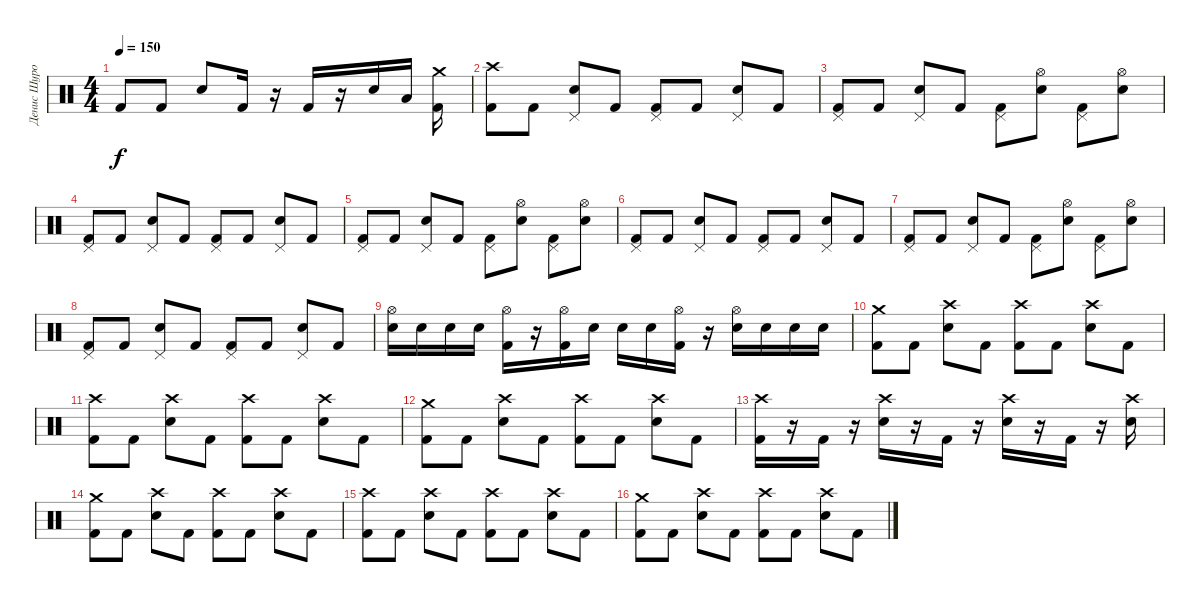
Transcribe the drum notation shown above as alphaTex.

\track ("Денис Шуров" "Денис Шуро") {instrument percussion}
\staff {score}
\articulation defaults
\ts (4 4)
\tempo 150
\clef neutral
\ks c "Kick (hit) 2".8{dy f} "Kick (hit) 2".8 "Electric Snare (hit)".8 "Kick (hit) 2".16
r.16 "Kick (hit) 2".16 r.16 "Electric Snare (hit)".16 "Low Tom (hit)".16 ("Crash medium (hit)" "Kick (hit) 2").16 |
("Crash high (hit)" "Kick (hit) 2").8 "Kick (hit) 2".8 ("Pedal Hi-Hat (hit)" "Electric Snare (hit)").8 "Kick (hit) 2".8 ("Pedal Hi-Hat (hit)" "Kick (hit) 2").8 "Kick (hit) 2".8 ("Pedal Hi-Hat (hit)" "Electric Snare (hit)").8 "Kick (hit) 2".8 |
("Pedal Hi-Hat (hit)" "Kick (hit) 2").8 "Kick (hit) 2".8 ("Pedal Hi-Hat (hit)" "Electric Snare (hit)").8 "Kick (hit) 2".8 ("Pedal Hi-Hat (hit)" "Kick (hit) 2").8 ("Hi-Hat (open)" "Electric Snare (hit)").8 ("Pedal Hi-Hat (hit)" "Kick (hit) 2").8 ("Hi-Hat (open)" "Electric Snare (hit)").8 |
("Pedal Hi-Hat (hit)" "Kick (hit) 2").8 "Kick (hit) 2".8 ("Pedal Hi-Hat (hit)" "Electric Snare (hit)").8 "Kick (hit) 2".8 ("Pedal Hi-Hat (hit)" "Kick (hit) 2").8 "Kick (hit) 2".8 ("Pedal Hi-Hat (hit)" "Electric Snare (hit)").8 "Kick (hit) 2".8 |
("Pedal Hi-Hat (hit)" "Kick (hit) 2").8 "Kick (hit) 2".8 ("Pedal Hi-Hat (hit)" "Electric Snare (hit)").8 "Kick (hit) 2".8 ("Pedal Hi-Hat (hit)" "Kick (hit) 2").8 ("Hi-Hat (open)" "Electric Snare (hit)").8 ("Pedal Hi-Hat (hit)" "Kick (hit) 2").8 ("Hi-Hat (open)" "Electric Snare (hit)").8 |
("Pedal Hi-Hat (hit)" "Kick (hit) 2").8 "Kick (hit) 2".8 ("Pedal Hi-Hat (hit)" "Electric Snare (hit)").8 "Kick (hit) 2".8 ("Pedal Hi-Hat (hit)" "Kick (hit) 2").8 "Kick (hit) 2".8 ("Pedal Hi-Hat (hit)" "Electric Snare (hit)").8 "Kick (hit) 2".8 |
("Pedal Hi-Hat (hit)" "Kick (hit) 2").8 "Kick (hit) 2".8 ("Pedal Hi-Hat (hit)" "Electric Snare (hit)").8 "Kick (hit) 2".8 ("Pedal Hi-Hat (hit)" "Kick (hit) 2").8 ("Hi-Hat (open)" "Electric Snare (hit)").8 ("Pedal Hi-Hat (hit)" "Kick (hit) 2").8 ("Hi-Hat (open)" "Electric Snare (hit)").8 |
("Pedal Hi-Hat (hit)" "Kick (hit) 2").8 "Kick (hit) 2".8 ("Pedal Hi-Hat (hit)" "Electric Snare (hit)").8 "Kick (hit) 2".8 ("Pedal Hi-Hat (hit)" "Kick (hit) 2").8 "Kick (hit) 2".8 ("Pedal Hi-Hat (hit)" "Electric Snare (hit)").8 "Kick (hit) 2".8 |
("Hi-Hat (open)" "Electric Snare (hit)").16 "Electric Snare (hit)".16 "Electric Snare (hit)".16 "Electric Snare (hit)".16 ("Hi-Hat (open)" "Kick (hit) 2").16 r.16 ("Hi-Hat (open)" "Kick (hit) 2").16 "Electric Snare (hit)".16 "Electric Snare (hit)".16 "Electric Snare (hit)".16 ("Hi-Hat (open)" "Kick (hit) 2").16 r.16 ("Hi-Hat (open)" "Electric Snare (hit)").16 "Electric Snare (hit)".16 "Electric Snare (hit)".16 "Electric Snare (hit)".16 |
("Crash medium (hit)" "Kick (hit) 2").8 "Kick (hit) 2".8 ("Crash high (hit)" "Electric Snare (hit)").8 "Kick (hit) 2".8 ("Crash high (hit)" "Kick (hit) 2").8 "Kick (hit) 2".8 ("Crash high (hit)" "Electric Snare (hit)").8 "Kick (hit) 2".8 |
("Crash high (hit)" "Kick (hit) 2").8 "Kick (hit) 2".8 ("Crash high (hit)" "Electric Snare (hit)").8 "Kick (hit) 2".8 ("Crash high (hit)" "Kick (hit) 2").8 "Kick (hit) 2".8 ("Crash high (hit)" "Electric Snare (hit)").8 "Kick (hit) 2".8 |
("Crash medium (hit)" "Kick (hit) 2").8 "Kick (hit) 2".8 ("Crash high (hit)" "Electric Snare (hit)").8 "Kick (hit) 2".8 ("Crash high (hit)" "Kick (hit) 2").8 "Kick (hit) 2".8 ("Crash high (hit)" "Electric Snare (hit)").8 "Kick (hit) 2".8 |
("Crash high (hit)" "Kick (hit) 2").16 r.16 "Kick (hit) 2".16 r.16 ("Crash high (hit)" "Electric Snare (hit)").16 r.16 "Kick (hit) 2".16 r.16 ("Crash high (hit)" "Electric Snare (hit)").16 r.16 "Kick (hit) 2".16 r.16 ("Crash high (hit)" "Electric Snare (hit)").16 |
("Crash medium (hit)" "Kick (hit) 2").8 "Kick (hit) 2".8 ("Crash high (hit)" "Electric Snare (hit)").8 "Kick (hit) 2".8 ("Crash high (hit)" "Kick (hit) 2").8 "Kick (hit) 2".8 ("Crash high (hit)" "Electric Snare (hit)").8 "Kick (hit) 2".8 |
("Crash high (hit)" "Kick (hit) 2").8 "Kick (hit) 2".8 ("Crash high (hit)" "Electric Snare (hit)").8 "Kick (hit) 2".8 ("Crash high (hit)" "Kick (hit) 2").8 "Kick (hit) 2".8 ("Crash high (hit)" "Electric Snare (hit)").8 "Kick (hit) 2".8 |
("Crash medium (hit)" "Kick (hit) 2").8 "Kick (hit) 2".8 ("Crash high (hit)" "Electric Snare (hit)").8 "Kick (hit) 2".8 ("Crash high (hit)" "Kick (hit) 2").8 "Kick (hit) 2".8 ("Crash high (hit)" "Electric Snare (hit)").8 "Kick (hit) 2".8
